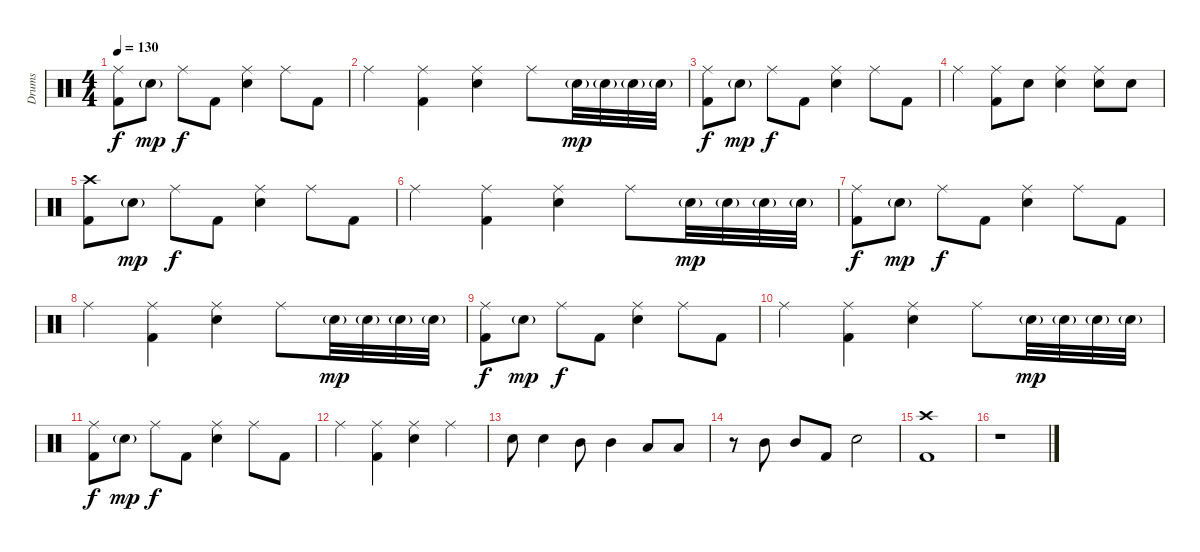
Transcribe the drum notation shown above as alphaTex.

\track ("Drums" "Drums") {instrument percussion}
\staff {score}
\articulation defaults
\ts (4 4)
\tempo 130
\clef neutral
\ks c
("Ride (middle)" "Kick (hit) 2").8{dy f} "Electric Snare (hit)"{g}.8{dy mp} "Ride (middle)".8{dy f} "Kick (hit) 2".8 ("Ride (middle)" "Electric Snare (hit)").4 "Ride (middle)".8 "Kick (hit) 2".8 |
"Ride (middle)".4 ("Ride (middle)" "Kick (hit) 2").4 ("Ride (middle)" "Electric Snare (hit)").4 "Ride (middle)".8 "Electric Snare (hit)"{g}.32{dy mp} "Electric Snare (hit)"{g}.32 "Electric Snare (hit)"{g}.32 "Electric Snare (hit)"{g}.32 |
("Ride (middle)" "Kick (hit) 2").8{dy f} "Electric Snare (hit)"{g}.8{dy mp} "Ride (middle)".8{dy f} "Kick (hit) 2".8 ("Ride (middle)" "Electric Snare (hit)").4 "Ride (middle)".8 "Kick (hit) 2".8 |
"Ride (middle)".4 ("Ride (middle)" "Kick (hit) 2").8 "Electric Snare (hit)".8 ("Ride (middle)" "Electric Snare (hit)").4 ("Ride (middle)" "Electric Snare (hit)").8 "Electric Snare (hit)".8 |
("Crash high (hit)" "Kick (hit) 2").8 "Electric Snare (hit)"{g}.8{dy mp} "Ride (middle)".8{dy f} "Kick (hit) 2".8 ("Ride (middle)" "Electric Snare (hit)").4 "Ride (middle)".8 "Kick (hit) 2".8 |
"Ride (middle)".4 ("Ride (middle)" "Kick (hit) 2").4 ("Ride (middle)" "Electric Snare (hit)").4 "Ride (middle)".8 "Electric Snare (hit)"{g}.32{dy mp} "Electric Snare (hit)"{g}.32 "Electric Snare (hit)"{g}.32 "Electric Snare (hit)"{g}.32 |
("Ride (middle)" "Kick (hit) 2").8{dy f} "Electric Snare (hit)"{g}.8{dy mp} "Ride (middle)".8{dy f} "Kick (hit) 2".8 ("Ride (middle)" "Electric Snare (hit)").4 "Ride (middle)".8 "Kick (hit) 2".8 |
"Ride (middle)".4 ("Ride (middle)" "Kick (hit) 2").4 ("Ride (middle)" "Electric Snare (hit)").4 "Ride (middle)".8 "Electric Snare (hit)"{g}.32{dy mp} "Electric Snare (hit)"{g}.32 "Electric Snare (hit)"{g}.32 "Electric Snare (hit)"{g}.32 |
("Ride (middle)" "Kick (hit) 2").8{dy f} "Electric Snare (hit)"{g}.8{dy mp} "Ride (middle)".8{dy f} "Kick (hit) 2".8 ("Ride (middle)" "Electric Snare (hit)").4 "Ride (middle)".8 "Kick (hit) 2".8 |
"Ride (middle)".4 ("Ride (middle)" "Kick (hit) 2").4 ("Ride (middle)" "Electric Snare (hit)").4 "Ride (middle)".8 "Electric Snare (hit)"{g}.32{dy mp} "Electric Snare (hit)"{g}.32 "Electric Snare (hit)"{g}.32 "Electric Snare (hit)"{g}.32 |
("Ride (middle)" "Kick (hit) 2").8{dy f} "Electric Snare (hit)"{g}.8{dy mp} "Ride (middle)".8{dy f} "Kick (hit) 2".8 ("Ride (middle)" "Electric Snare (hit)").4 "Ride (middle)".8 "Kick (hit) 2".8 |
"Ride (middle)".4 ("Ride (middle)" "Kick (hit) 2").4 ("Ride (middle)" "Electric Snare (hit)").4 "Ride (middle)".4 |
"Electric Snare (hit)".8 "Electric Snare (hit)".4 "Mid Tom (hit)".8 "Mid Tom (hit)".4 "Low Tom (hit)".8 "Low Tom (hit)".8 |
r.8 "Mid Tom (hit)".8 "Mid Tom (hit)".8 "Kick (hit) 2".8 "Electric Snare (hit)".2 |
("Crash high (hit)" "Kick (hit) 2").1 |
r.1
